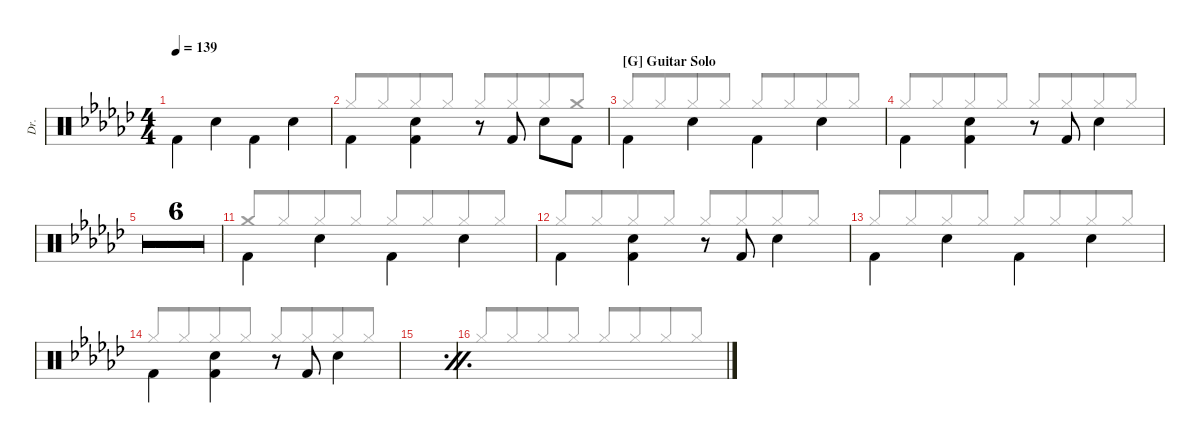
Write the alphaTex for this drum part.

\defaultSystemsLayout 4
\hideDynamics
\bracketExtendMode groupsimilarinstruments
\otherSystemsTrackNameOrientation horizontal
\track ("Drums" "Dr.") {multiBarRest instrument percussion}
\staff {score}
\articulation defaults
\voice
\ts (4 4)
\tempo 139
\clef neutral
\ks gb "Kick (hit) 2"{acc forcenatural}.4{dy f beam Down} "Snare (hit) 2"{acc forcenatural}.4{beam Down} "Kick (hit) 2"{acc forcenatural}.4{beam Down} "Snare (hit) 2"{acc forcenatural}.4{beam Down}
|
"Kick (hit) 2"{acc forcenatural}.4{beam Down} ("Snare (hit) 2"{acc forcenatural} "Kick (hit) 2"{acc forcenatural}).4{beam Down} r.8{beam Up} "Kick (hit) 2"{acc forcenatural}.8{beam Down} "Snare (hit) 2"{acc forcenatural}.8{beam Down} "Kick (hit) 2"{acc forcenatural}.8{beam Down} |
\section ("G" "Guitar Solo")
"Kick (hit) 2"{acc forcenatural}.4{beam Down} "Snare (hit) 2"{acc forcenatural}.4{beam Down} "Kick (hit) 2"{acc forcenatural}.4{beam Down} "Snare (hit) 2"{acc forcenatural}.4{beam Down} |
"Kick (hit) 2"{acc forcenatural}.4{beam Down} ("Snare (hit) 2"{acc forcenatural} "Kick (hit) 2"{acc forcenatural}).4{beam Down} r.8{beam Up} "Kick (hit) 2"{acc forcenatural}.8{beam Down} "Snare (hit) 2"{acc forcenatural}.4{beam Down} |
\simile firstofdouble
|
\simile secondofdouble
|
\simile firstofdouble
|
\simile secondofdouble
|
\simile firstofdouble
|
\simile secondofdouble
|
\simile none "Kick (hit) 2"{acc forcenatural}.4{beam Down} "Snare (hit) 2"{acc forcenatural}.4{beam Down} "Kick (hit) 2"{acc forcenatural}.4{beam Down} "Snare (hit) 2"{acc forcenatural}.4{beam Down}
|
"Kick (hit) 2"{acc forcenatural}.4{beam Down} ("Snare (hit) 2"{acc forcenatural} "Kick (hit) 2"{acc forcenatural}).4{beam Down} r.8{beam Up} "Kick (hit) 2"{acc forcenatural}.8{beam Down} "Snare (hit) 2"{acc forcenatural}.4{beam Down} |
"Kick (hit) 2"{acc forcenatural}.4{beam Down} "Snare (hit) 2"{acc forcenatural}.4{beam Down} "Kick (hit) 2"{acc forcenatural}.4{beam Down} "Snare (hit) 2"{acc forcenatural}.4{beam Down} |
"Kick (hit) 2"{acc forcenatural}.4{beam Down} ("Snare (hit) 2"{acc forcenatural} "Kick (hit) 2"{acc forcenatural}).4{beam Down} r.8{beam Up} "Kick (hit) 2"{acc forcenatural}.8{beam Down} "Snare (hit) 2"{acc forcenatural}.4{beam Down} |
\simile firstofdouble
|
\simile secondofdouble
\voice
\clef neutral
\ottava regular
\simile none
\ks gb "Hi-Hat (closed)"{acc forcenatural}.8{dy f beam Up} "Hi-Hat (closed)"{acc forcenatural}.8{beam Up beam merge} "Hi-Hat (closed)"{acc forcenatural}.8{beam Up} "Hi-Hat (closed)"{acc forcenatural}.8{beam Up} "Hi-Hat (closed)"{acc forcenatural}.8{beam Up} "Hi-Hat (closed)"{acc forcenatural}.8{beam Up beam merge} "Hi-Hat (closed)"{acc forcenatural}.8{beam Up} "Hi-Hat (closed)"{acc forcenatural}.8{beam Up}
|
"Hi-Hat (closed)"{acc forcenatural}.8{beam Up beam merge} "Hi-Hat (closed)"{acc forcenatural}.8{beam Up beam merge} "Hi-Hat (closed)"{acc forcenatural}.8{beam Up} "Hi-Hat (closed)"{acc forcenatural}.8{beam Up} "Hi-Hat (closed)"{acc forcenatural}.8{beam Up} "Hi-Hat (closed)"{acc forcenatural}.8{beam Up beam merge} "Hi-Hat (closed)"{acc forcenatural}.8{beam Up beam merge} "Crash medium (hit)"{acc forcenatural}.8{beam Up} |
"Hi-Hat (closed)"{acc forcenatural}.8{beam Up} "Hi-Hat (closed)"{acc forcenatural}.8{beam Up beam merge} "Hi-Hat (closed)"{acc forcenatural}.8{beam Up} "Hi-Hat (closed)"{acc forcenatural}.8{beam Up} "Hi-Hat (closed)"{acc forcenatural}.8{beam Up} "Hi-Hat (closed)"{acc forcenatural}.8{beam Up beam merge} "Hi-Hat (closed)"{acc forcenatural}.8{beam Up} "Hi-Hat (closed)"{acc forcenatural}.8{beam Up} |
"Hi-Hat (closed)"{acc forcenatural}.8{beam Up} "Hi-Hat (closed)"{acc forcenatural}.8{beam Up beam merge} "Hi-Hat (closed)"{acc forcenatural}.8{beam Up} "Hi-Hat (closed)"{acc forcenatural}.8{beam Up} "Hi-Hat (closed)"{acc forcenatural}.8{beam Up beam merge} "Hi-Hat (closed)"{acc forcenatural}.8{beam Up beam merge} "Hi-Hat (closed)"{acc forcenatural}.8{beam Up beam merge} "Hi-Hat (closed)"{acc forcenatural}.8{beam Up} |
\simile firstofdouble
|
\simile secondofdouble
|
\simile firstofdouble
|
\simile secondofdouble
|
\simile firstofdouble
|
\simile secondofdouble
|
\simile none "Crash medium (hit)"{acc forcenatural}.8{beam Up} "Hi-Hat (closed)"{acc forcenatural}.8{beam Up beam merge} "Hi-Hat (closed)"{acc forcenatural}.8{beam Up} "Hi-Hat (closed)"{acc forcenatural}.8{beam Up} "Hi-Hat (closed)"{acc forcenatural}.8{beam Up} "Hi-Hat (closed)"{acc forcenatural}.8{beam Up beam merge} "Hi-Hat (closed)"{acc forcenatural}.8{beam Up} "Hi-Hat (closed)"{acc forcenatural}.8{beam Up}
|
"Hi-Hat (closed)"{acc forcenatural}.8{beam Up} "Hi-Hat (closed)"{acc forcenatural}.8{beam Up beam merge} "Hi-Hat (closed)"{acc forcenatural}.8{beam Up} "Hi-Hat (closed)"{acc forcenatural}.8{beam Up} "Hi-Hat (closed)"{acc forcenatural}.8{beam Up beam merge} "Hi-Hat (closed)"{acc forcenatural}.8{beam Up beam merge} "Hi-Hat (closed)"{acc forcenatural}.8{beam Up beam merge} "Hi-Hat (closed)"{acc forcenatural}.8{beam Up} |
"Hi-Hat (closed)"{acc forcenatural}.8{beam Up} "Hi-Hat (closed)"{acc forcenatural}.8{beam Up beam merge} "Hi-Hat (closed)"{acc forcenatural}.8{beam Up} "Hi-Hat (closed)"{acc forcenatural}.8{beam Up} "Hi-Hat (closed)"{acc forcenatural}.8{beam Up} "Hi-Hat (closed)"{acc forcenatural}.8{beam Up beam merge} "Hi-Hat (closed)"{acc forcenatural}.8{beam Up} "Hi-Hat (closed)"{acc forcenatural}.8{beam Up} |
"Hi-Hat (closed)"{acc forcenatural}.8{beam Up beam merge} "Hi-Hat (closed)"{acc forcenatural}.8{beam Up beam merge} "Hi-Hat (closed)"{acc forcenatural}.8{beam Up} "Hi-Hat (closed)"{acc forcenatural}.8{beam Up} "Hi-Hat (closed)"{acc forcenatural}.8{beam Up} "Hi-Hat (closed)"{acc forcenatural}.8{beam Up beam merge} "Hi-Hat (closed)"{acc forcenatural}.8{beam Up beam merge} "Hi-Hat (closed)"{acc forcenatural}.8{beam Up} |
\simile firstofdouble
|
\simile secondofdouble
